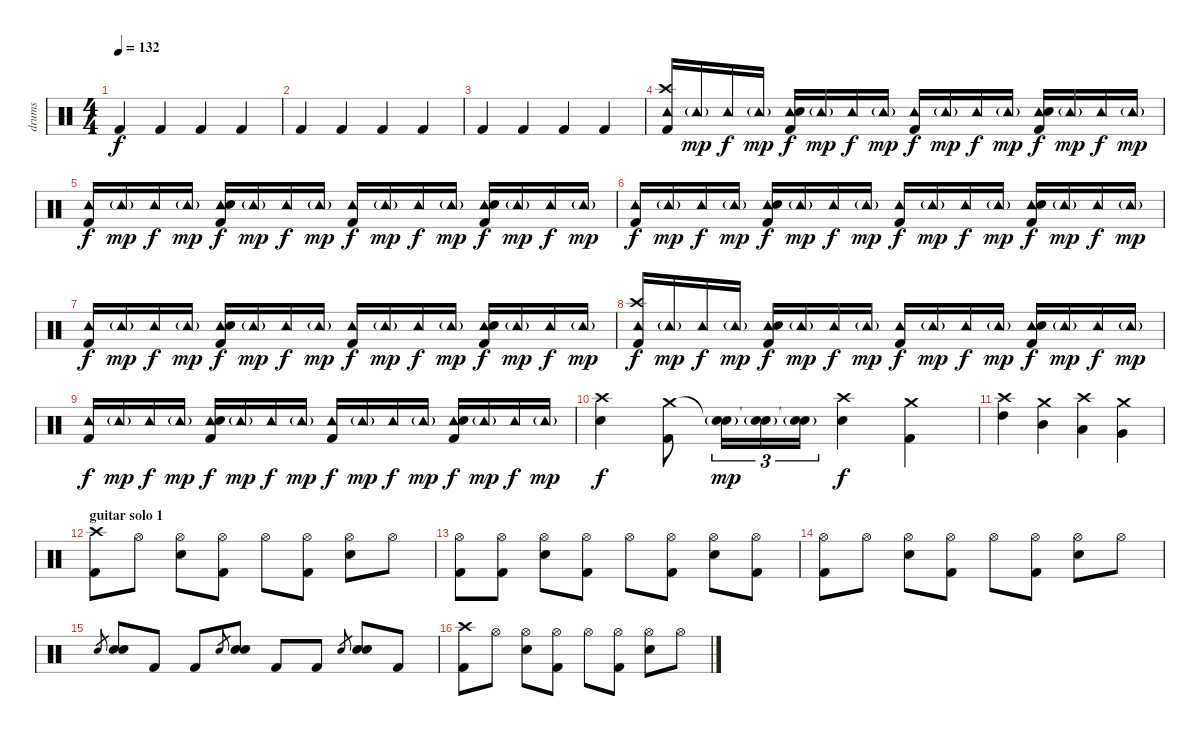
\track ("drums" "drums") {instrument percussion}
\staff {score}
\articulation defaults
\ts (4 4)
\tempo 132
\clef neutral
\ks c "Kick (hit) 2".4{dy f} "Kick (hit) 2".4 "Kick (hit) 2".4 "Kick (hit) 2".4
|
"Kick (hit) 2".4 "Kick (hit) 2".4 "Kick (hit) 2".4 "Kick (hit) 2".4 |
"Kick (hit) 2".4 "Kick (hit) 2".4 "Kick (hit) 2".4 "Kick (hit) 2".4 |
("Crash high (hit)" "Tambourine (hit)" "Kick (hit) 2").16 "Tambourine (hit)"{g}.16{dy mp} "Tambourine (hit)".16{dy f} "Tambourine (hit)"{g}.16{dy mp} ("Tambourine (hit)" "Electric Snare (hit)" "Kick (hit) 2").16{dy f} "Tambourine (hit)"{g}.16{dy mp} "Tambourine (hit)".16{dy f} "Tambourine (hit)"{g}.16{dy mp} ("Tambourine (hit)" "Kick (hit) 2").16{dy f} "Tambourine (hit)"{g}.16{dy mp} "Tambourine (hit)".16{dy f} "Tambourine (hit)"{g}.16{dy mp} ("Tambourine (hit)" "Electric Snare (hit)" "Kick (hit) 2").16{dy f} "Tambourine (hit)"{g}.16{dy mp} "Tambourine (hit)".16{dy f} "Tambourine (hit)"{g}.16{dy mp} |
("Tambourine (hit)" "Kick (hit) 2").16{dy f} "Tambourine (hit)"{g}.16{dy mp} "Tambourine (hit)".16{dy f} "Tambourine (hit)"{g}.16{dy mp} ("Tambourine (hit)" "Electric Snare (hit)" "Kick (hit) 2").16{dy f} "Tambourine (hit)"{g}.16{dy mp} "Tambourine (hit)".16{dy f} "Tambourine (hit)"{g}.16{dy mp} ("Tambourine (hit)" "Kick (hit) 2").16{dy f} "Tambourine (hit)"{g}.16{dy mp} "Tambourine (hit)".16{dy f} "Tambourine (hit)"{g}.16{dy mp} ("Tambourine (hit)" "Electric Snare (hit)" "Kick (hit) 2").16{dy f} "Tambourine (hit)"{g}.16{dy mp} "Tambourine (hit)".16{dy f} "Tambourine (hit)"{g}.16{dy mp} |
("Tambourine (hit)" "Kick (hit) 2").16{dy f} "Tambourine (hit)"{g}.16{dy mp} "Tambourine (hit)".16{dy f} "Tambourine (hit)"{g}.16{dy mp} ("Tambourine (hit)" "Electric Snare (hit)" "Kick (hit) 2").16{dy f} "Tambourine (hit)"{g}.16{dy mp} "Tambourine (hit)".16{dy f} "Tambourine (hit)"{g}.16{dy mp} ("Tambourine (hit)" "Kick (hit) 2").16{dy f} "Tambourine (hit)"{g}.16{dy mp} "Tambourine (hit)".16{dy f} "Tambourine (hit)"{g}.16{dy mp} ("Tambourine (hit)" "Electric Snare (hit)" "Kick (hit) 2").16{dy f} "Tambourine (hit)"{g}.16{dy mp} "Tambourine (hit)".16{dy f} "Tambourine (hit)"{g}.16{dy mp} |
("Tambourine (hit)" "Kick (hit) 2").16{dy f} "Tambourine (hit)"{g}.16{dy mp} "Tambourine (hit)".16{dy f} "Tambourine (hit)"{g}.16{dy mp} ("Tambourine (hit)" "Electric Snare (hit)" "Kick (hit) 2").16{dy f} "Tambourine (hit)"{g}.16{dy mp} "Tambourine (hit)".16{dy f} "Tambourine (hit)"{g}.16{dy mp} ("Tambourine (hit)" "Kick (hit) 2").16{dy f} "Tambourine (hit)"{g}.16{dy mp} "Tambourine (hit)".16{dy f} "Tambourine (hit)"{g}.16{dy mp} ("Tambourine (hit)" "Electric Snare (hit)" "Kick (hit) 2").16{dy f} "Tambourine (hit)"{g}.16{dy mp} "Tambourine (hit)".16{dy f} "Tambourine (hit)"{g}.16{dy mp} |
("Crash high (hit)" "Tambourine (hit)" "Kick (hit) 2").16{dy f} "Tambourine (hit)"{g}.16{dy mp} "Tambourine (hit)".16{dy f} "Tambourine (hit)"{g}.16{dy mp} ("Tambourine (hit)" "Electric Snare (hit)" "Kick (hit) 2").16{dy f} "Tambourine (hit)"{g}.16{dy mp} "Tambourine (hit)".16{dy f} "Tambourine (hit)"{g}.16{dy mp} ("Tambourine (hit)" "Kick (hit) 2").16{dy f} "Tambourine (hit)"{g}.16{dy mp} "Tambourine (hit)".16{dy f} "Tambourine (hit)"{g}.16{dy mp} ("Tambourine (hit)" "Electric Snare (hit)" "Kick (hit) 2").16{dy f} "Tambourine (hit)"{g}.16{dy mp} "Tambourine (hit)".16{dy f} "Tambourine (hit)"{g}.16{dy mp} |
("Tambourine (hit)" "Kick (hit) 2").16{dy f} "Tambourine (hit)"{g}.16{dy mp} "Tambourine (hit)".16{dy f} "Tambourine (hit)"{g}.16{dy mp} ("Tambourine (hit)" "Electric Snare (hit)" "Kick (hit) 2").16{dy f} "Tambourine (hit)"{g}.16{dy mp} "Tambourine (hit)".16{dy f} "Tambourine (hit)"{g}.16{dy mp} ("Tambourine (hit)" "Kick (hit) 2").16{dy f} "Tambourine (hit)"{g}.16{dy mp} "Tambourine (hit)".16{dy f} "Tambourine (hit)"{g}.16{dy mp} ("Tambourine (hit)" "Electric Snare (hit)" "Kick (hit) 2").16{dy f} "Tambourine (hit)"{g}.16{dy mp} "Tambourine (hit)".16{dy f} "Tambourine (hit)"{g}.16{dy mp} |
("Crash high (hit)" "Electric Snare (hit)").4{dy f} ("Crash medium (hit)" "Kick (hit) 2").8 ("Snare (hit)"{t} "Electric Snare (hit)"{g}).16{tu (3 2) dy mp} ("Snare (hit)"{t} "Electric Snare (hit)"{g}).16{tu (3 2)} ("Snare (hit)"{t} "Electric Snare (hit)"{g}).16{tu (3 2)} ("Crash high (hit)" "Electric Snare (hit)").4{dy f} ("Crash medium (hit)" "Kick (hit) 2").4 |
("Crash high (hit)" "High Tom (hit)").4 ("Crash medium (hit)" "Mid Tom (hit)").4 ("Crash high (hit)" "Low Tom (hit)").4 ("Crash medium (hit)" "Very Low Tom (hit)").4 |
\section ("" "guitar solo 1")
("Crash high (hit)" "Kick (hit) 2").8 "Hi-Hat (open)".8 ("Hi-Hat (open)" "Electric Snare (hit)").8 ("Hi-Hat (open)" "Kick (hit) 2").8 "Hi-Hat (open)".8 ("Hi-Hat (open)" "Kick (hit) 2").8 ("Hi-Hat (open)" "Electric Snare (hit)").8 "Hi-Hat (open)".8 |
("Hi-Hat (open)" "Kick (hit) 2").8 ("Hi-Hat (open)" "Kick (hit) 2").8 ("Hi-Hat (open)" "Electric Snare (hit)").8 ("Hi-Hat (open)" "Kick (hit) 2").8 "Hi-Hat (open)".8 ("Hi-Hat (open)" "Kick (hit) 2").8 ("Hi-Hat (open)" "Electric Snare (hit)").8 ("Hi-Hat (open)" "Kick (hit) 2").8 |
("Hi-Hat (open)" "Kick (hit) 2").8 "Hi-Hat (open)".8 ("Hi-Hat (open)" "Electric Snare (hit)").8 ("Hi-Hat (open)" "Kick (hit) 2").8 "Hi-Hat (open)".8 ("Hi-Hat (open)" "Kick (hit) 2").8 ("Hi-Hat (open)" "Electric Snare (hit)").8 "Hi-Hat (open)".8 |
"Electric Snare (hit)".8{gr} ("Electric Snare (hit)" "Electric Snare (hit)").8 "Kick (hit) 2".8 "Kick (hit) 2".8 "Electric Snare (hit)".8{gr} ("Electric Snare (hit)" "Electric Snare (hit)").8 "Kick (hit) 2".8 "Kick (hit) 2".8 "Electric Snare (hit)".8{gr} ("Electric Snare (hit)" "Electric Snare (hit)").8 "Kick (hit) 2".8 |
("Crash high (hit)" "Kick (hit) 2").8 "Hi-Hat (open)".8 ("Hi-Hat (open)" "Electric Snare (hit)").8 ("Hi-Hat (open)" "Kick (hit) 2").8 "Hi-Hat (open)".8 ("Hi-Hat (open)" "Kick (hit) 2").8 ("Hi-Hat (open)" "Electric Snare (hit)").8 "Hi-Hat (open)".8
